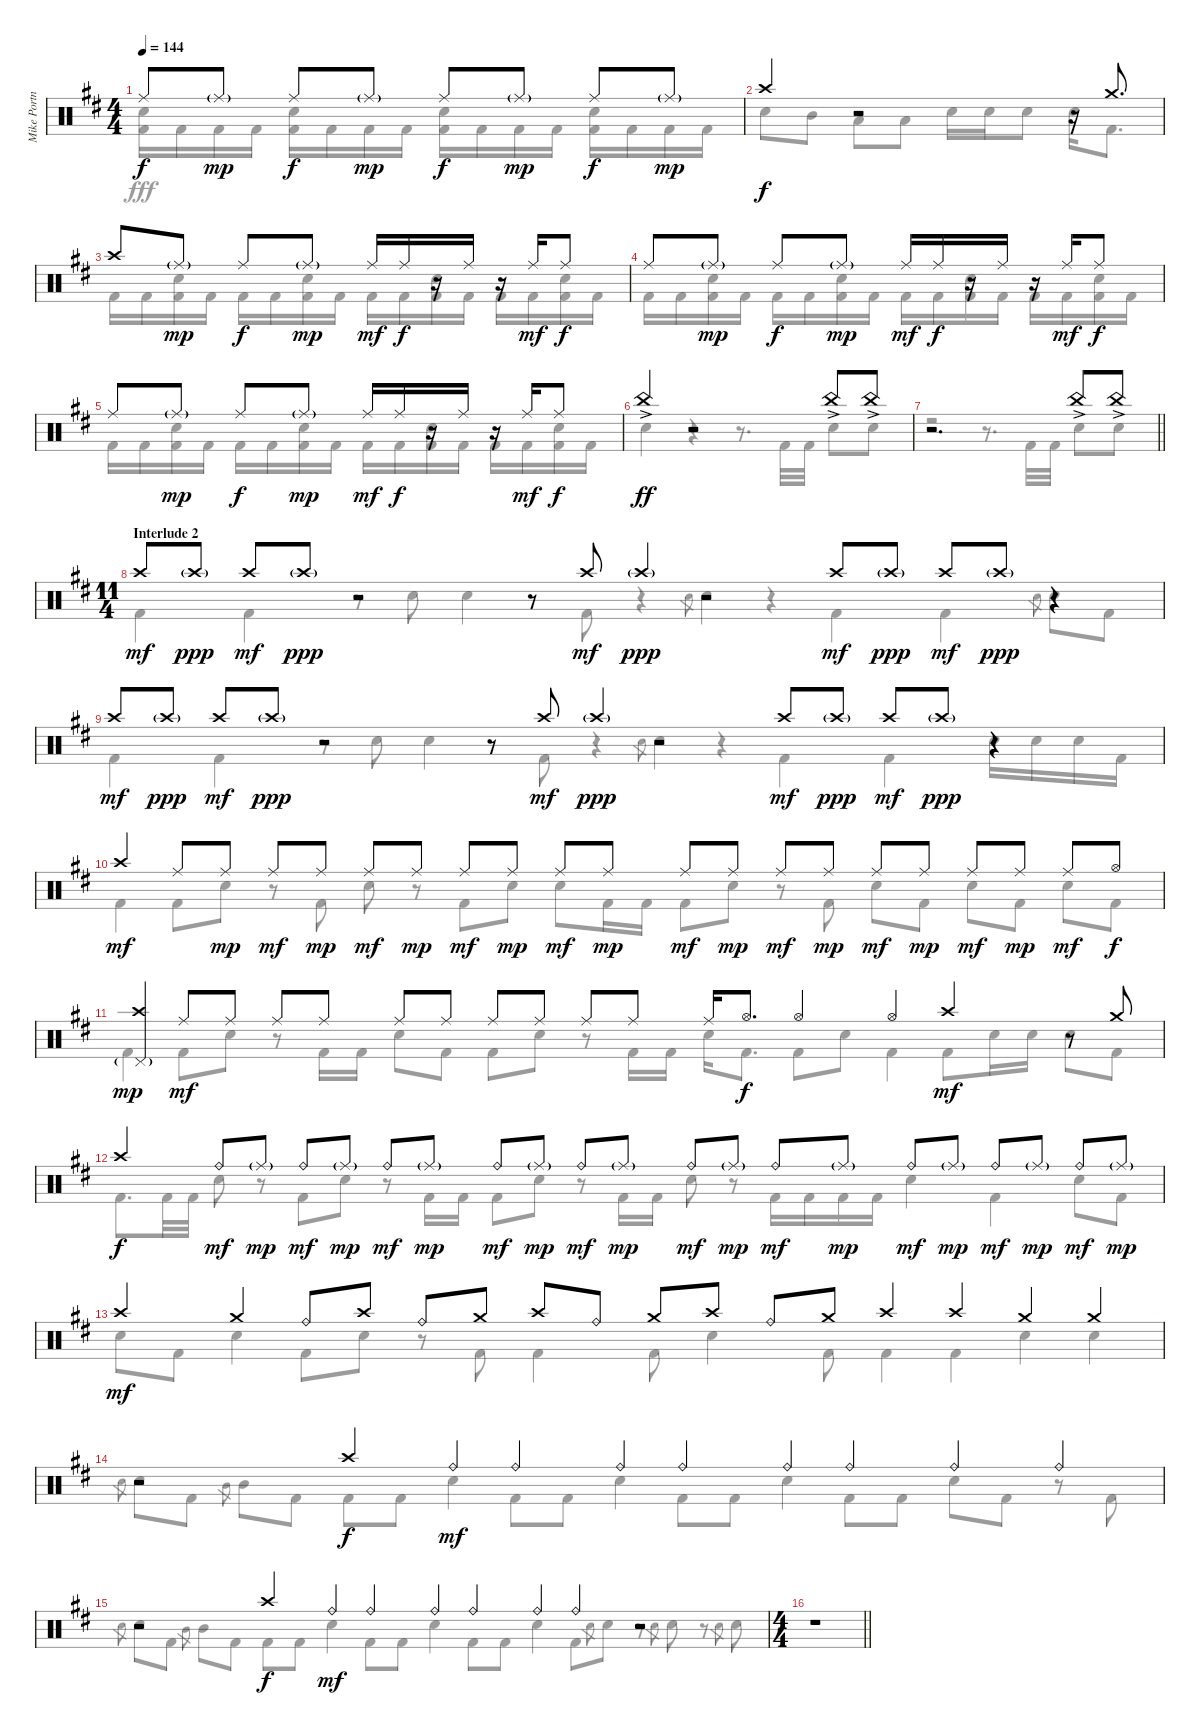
\track ("Mike Portnoy Drums" "Mike Portn") {instrument percussion}
\staff {score}
\articulation defaults
\voice
\ts (4 4)
\tempo 144
\clef neutral
\ks bminor "Ride (middle)".8{dy f} "Ride (middle)"{g}.8{dy mp} "Ride (middle)".8{dy f} "Ride (middle)"{g}.8{dy mp} "Ride (middle)".8{dy f} "Ride (middle)"{g}.8{dy mp} "Ride (middle)".8{dy f} "Ride (middle)"{g}.8{dy mp}
|
"Crash high (hit)".4{dy f} r.2 r.16 "Crash medium (hit)".8{d} |
"Crash high (hit)".8 "Ride (middle)"{g}.8{dy mp} "Ride (middle)".8{dy f} "Ride (middle)"{g}.8{dy mp} "Ride (middle)".16{dy mf} "Ride (middle)".16{dy f} r.16 "Ride (middle)".16 r.16 "Ride (middle)".16{dy mf} "Ride (middle)".8{dy f} |
"Ride (middle)".8 "Ride (middle)"{g}.8{dy mp} "Ride (middle)".8{dy f} "Ride (middle)"{g}.8{dy mp} "Ride (middle)".16{dy mf} "Ride (middle)".16{dy f} r.16 "Ride (middle)".16 r.16 "Ride (middle)".16{dy mf} "Ride (middle)".8{dy f} |
"Ride (middle)".8 "Ride (middle)"{g}.8{dy mp} "Ride (middle)".8{dy f} "Ride (middle)"{g}.8{dy mp} "Ride (middle)".16{dy mf} "Ride (middle)".16{dy f} r.16 "Ride (middle)".16 r.16 "Ride (middle)".16{dy mf} "Ride (middle)".8{dy f} |
"China (hit)"{ac}.4{dy ff} r.2 "China (hit)"{ac}.8 "China (hit)"{ac}.8 |
\barLineRight lightlight
r.2{d} "China (hit)"{ac}.8 "China (hit)"{ac}.8 |
\ts (11 4)
\section ("" "Interlude 2")
"Crash high (hit)".8{dy mf} "Crash high (hit)"{g}.8{dy ppp} "Crash high (hit)".8{dy mf} "Crash high (hit)"{g}.8{dy ppp} r.2 r.8 "Crash high (hit)".8{dy mf} "Crash high (hit)"{g}.4{dy ppp} r.2 "Crash high (hit)".8{dy mf} "Crash high (hit)"{g}.8{dy ppp} "Crash high (hit)".8{dy mf} "Crash high (hit)"{g}.8{dy ppp} r.4 |
"Crash high (hit)".8{dy mf} "Crash high (hit)"{g}.8{dy ppp} "Crash high (hit)".8{dy mf} "Crash high (hit)"{g}.8{dy ppp} r.2 r.8 "Crash high (hit)".8{dy mf} "Crash high (hit)"{g}.4{dy ppp} r.2 "Crash high (hit)".8{dy mf} "Crash high (hit)"{g}.8{dy ppp} "Crash high (hit)".8{dy mf} "Crash high (hit)"{g}.8{dy ppp} r.4 |
"Crash high (hit)".4{dy mf} "Ride (middle)".8 "Ride (middle)".8{dy mp} "Ride (middle)".8{dy mf} "Ride (middle)".8{dy mp} "Ride (middle)".8{dy mf} "Ride (middle)".8{dy mp} "Ride (middle)".8{dy mf} "Ride (middle)".8{dy mp} "Ride (middle)".8{dy mf} "Ride (middle)".8{dy mp} "Ride (middle)".8{dy mf} "Ride (middle)".8{dy mp} "Ride (middle)".8{dy mf} "Ride (middle)".8{dy mp} "Ride (middle)".8{dy mf} "Ride (middle)".8{dy mp} "Ride (middle)".8{dy mf} "Ride (middle)".8{dy mp} "Ride (middle)".8{dy mf} "Hi-Hat (open)".8{dy f} |
("Crash high (hit)" "Pedal Hi-Hat (hit)"{g}).4{dy mp} "Ride (middle)".8{dy mf} "Ride (middle)".8 "Ride (middle)".8 "Ride (middle)".8 "Ride (middle)".8 "Ride (middle)".8 "Ride (middle)".8 "Ride (middle)".8 "Ride (middle)".8 "Ride (middle)".8 "Ride (middle)".16 "Hi-Hat (open)".8{d dy f} "Hi-Hat (open)".4 "Hi-Hat (open)".4 "Crash high (hit)".4{dy mf} r.8 "Crash medium (hit)".8 |
"Crash high (hit)".4{dy f} "Ride (bell)".8{dy mf} "Ride (middle)"{g}.8{dy mp} "Ride (bell)".8{dy mf} "Ride (middle)"{g}.8{dy mp} "Ride (bell)".8{dy mf} "Ride (middle)"{g}.8{dy mp} "Ride (bell)".8{dy mf} "Ride (middle)"{g}.8{dy mp} "Ride (bell)".8{dy mf} "Ride (middle)"{g}.8{dy mp} "Ride (bell)".8{dy mf} "Ride (middle)"{g}.8{dy mp} "Ride (bell)".8{dy mf} "Ride (middle)"{g}.8{dy mp} "Ride (bell)".8{dy mf} "Ride (middle)"{g}.8{dy mp} "Ride (bell)".8{dy mf} "Ride (middle)"{g}.8{dy mp} "Ride (bell)".8{dy mf} "Ride (middle)"{g}.8{dy mp} |
"Crash high (hit)".4{dy mf} "Crash medium (hit)".4 "Ride (bell)".8 "Crash high (hit)".8 "Ride (bell)".8 "Crash medium (hit)".8 "Crash high (hit)".8 "Ride (bell)".8 "Crash medium (hit)".8 "Crash high (hit)".8 "Ride (bell)".8 "Crash medium (hit)".8 "Crash high (hit)".4 "Crash high (hit)".4 "Crash medium (hit)".4 "Crash medium (hit)".4 |
r.2 "Crash high (hit)".4{dy f} "Ride (bell)".4{dy mf} "Ride (bell)".4 "Ride (bell)".4 "Ride (bell)".4 "Ride (bell)".4 "Ride (bell)".4 "Ride (bell)".4 "Ride (bell)".4 |
r.2 "Crash high (hit)".4{dy f} "Ride (bell)".4{dy mf} "Ride (bell)".4 "Ride (bell)".4 "Ride (bell)".4 "Ride (bell)".4 "Ride (bell)".4 r.2 |
\ts (4 4)
\barLineRight lightlight
r.1
\voice
\clef neutral
\ottava regular
\simile none
\ks bminor
("Snare (hit) 2" "Kick (hit) 2").16{dy fff} "Kick (hit) 2".16 "Kick (hit) 2".16 "Kick (hit) 2".16 ("Snare (hit) 2" "Kick (hit) 2").16 "Kick (hit) 2".16 "Kick (hit) 2".16 "Kick (hit) 2".16 ("Snare (hit) 2" "Kick (hit) 2").16 "Kick (hit) 2".16 "Kick (hit) 2".16 "Kick (hit) 2".16 ("Snare (hit) 2" "Kick (hit) 2").16 "Kick (hit) 2".16 "Kick (hit) 2".16 "Kick (hit) 2".16 |
"Snare (hit) 2".8 "Mid Tom (hit)".8 "Low Tom (hit)".8 "Low Tom (hit)".8 "Snare (hit) 2".16 "Snare (hit) 2".16 "Snare (hit) 2".8 "Snare (hit) 2".16 "Kick (hit) 2".8{d} |
"Kick (hit) 2".16 "Kick (hit) 2".16 ("Snare (hit) 2" "Kick (hit) 2").16 "Kick (hit) 2".16 "Kick (hit) 2".16 "Kick (hit) 2".16 ("Snare (hit) 2" "Kick (hit) 2").16 "Kick (hit) 2".16 "Kick (hit) 2".16 "Kick (hit) 2".16 ("Snare (hit) 2" "Kick (hit) 2").16 "Kick (hit) 2".16 "Kick (hit) 2".16 "Kick (hit) 2".16 ("Snare (hit) 2" "Kick (hit) 2").16 "Kick (hit) 2".16 |
"Kick (hit) 2".16 "Kick (hit) 2".16 ("Snare (hit) 2" "Kick (hit) 2").16 "Kick (hit) 2".16 "Kick (hit) 2".16 "Kick (hit) 2".16 ("Snare (hit) 2" "Kick (hit) 2").16 "Kick (hit) 2".16 "Kick (hit) 2".16 "Kick (hit) 2".16 ("Snare (hit) 2" "Kick (hit) 2").16 "Kick (hit) 2".16 "Kick (hit) 2".16 "Kick (hit) 2".16 ("Snare (hit) 2" "Kick (hit) 2").16 "Kick (hit) 2".16 |
"Kick (hit) 2".16 "Kick (hit) 2".16 ("Snare (hit) 2" "Kick (hit) 2").16 "Kick (hit) 2".16 "Kick (hit) 2".16 "Kick (hit) 2".16 ("Snare (hit) 2" "Kick (hit) 2").16 "Kick (hit) 2".16 "Kick (hit) 2".16 "Kick (hit) 2".16 ("Snare (hit) 2" "Kick (hit) 2").16 "Kick (hit) 2".16 "Kick (hit) 2".16 "Kick (hit) 2".16 ("Snare (hit) 2" "Kick (hit) 2").16 "Kick (hit) 2".16 |
"Snare (hit) 2".4 r.4 r.8{d} "Kick (hit) 2".32 "Kick (hit) 2".32 "Snare (hit) 2".8 "Snare (hit) 2".8 |
\barLineRight lightlight
r.2 r.8{d} "Kick (hit) 2".32 "Kick (hit) 2".32 "Snare (hit) 2".8 "Snare (hit) 2".8 |
"Kick (hit) 2".4 "Kick (hit) 2".4 r.8 "Snare (hit) 2".8 "Snare (hit) 2".4 r.8 "Kick (hit) 2".8 r.4 "Snare (hit) 2".8{gr} "Snare (hit) 2".4 r.4 "Kick (hit) 2".4 "Kick (hit) 2".4 "Snare (hit) 2".8{gr} "Snare (hit) 2".8 "Kick (hit) 2".8 |
"Kick (hit) 2".4 "Kick (hit) 2".4 r.8 "Snare (hit) 2".8 "Snare (hit) 2".4 r.8 "Kick (hit) 2".8 r.4 "Snare (hit) 2".8{gr} "Snare (hit) 2".4 r.4 "Kick (hit) 2".4 "Kick (hit) 2".4 "Snare (hit) 2".16 "Snare (hit) 2".16 "Snare (hit) 2".16 "Kick (hit) 2".16 |
"Kick (hit) 2".4 "Kick (hit) 2".8 "Snare (hit) 2".8 r.8 "Kick (hit) 2".8 "Snare (hit) 2".8 r.8 "Kick (hit) 2".8 "Snare (hit) 2".8 "Snare (hit) 2".8 "Kick (hit) 2".16 "Kick (hit) 2".16 "Kick (hit) 2".8 "Snare (hit) 2".8 r.8 "Kick (hit) 2".8 "Snare (hit) 2".8 "Kick (hit) 2".8 "Snare (hit) 2".8 "Kick (hit) 2".8 "Snare (hit) 2".8 "Kick (hit) 2".8 |
"Kick (hit) 2".4 "Kick (hit) 2".8 "Snare (hit) 2".8 r.8 "Kick (hit) 2".16 "Kick (hit) 2".16 "Snare (hit) 2".8 "Kick (hit) 2".8 "Kick (hit) 2".8 "Snare (hit) 2".8 r.8 "Kick (hit) 2".16 "Kick (hit) 2".16 "Snare (hit) 2".16 "Kick (hit) 2".8{d} "Kick (hit) 2".8 "Snare (hit) 2".8 "Kick (hit) 2".4 "Kick (hit) 2".8 "Snare (hit) 2".16 "Snare (hit) 2".16 "Snare (hit) 2".8 "Kick (hit) 2".8 |
"Kick (hit) 2".8{d} "Kick (hit) 2".32 "Kick (hit) 2".32 "Snare (hit) 2".8 r.8 "Kick (hit) 2".8 "Snare (hit) 2".8 r.8 "Kick (hit) 2".16 "Kick (hit) 2".16 "Kick (hit) 2".8 "Snare (hit) 2".8 r.8 "Kick (hit) 2".16 "Kick (hit) 2".16 "Snare (hit) 2".8 r.8 "Kick (hit) 2".16 "Kick (hit) 2".16 "Kick (hit) 2".16 "Kick (hit) 2".16 "Snare (hit) 2".4 "Kick (hit) 2".4 "Snare (hit) 2".8 "Kick (hit) 2".8 |
"Snare (hit) 2".8 "Kick (hit) 2".8 "Snare (hit) 2".4 "Kick (hit) 2".8 "Snare (hit) 2".8 r.8 "Kick (hit) 2".8 "Kick (hit) 2".4 "Kick (hit) 2".8 "Snare (hit) 2".4 "Kick (hit) 2".8 "Kick (hit) 2".4 "Kick (hit) 2".4 "Snare (hit) 2".4 "Snare (hit) 2".4 |
"Snare (hit) 2".8{gr} "Snare (hit) 2".8 "Kick (hit) 2".8 "Mid Tom (hit)".8{gr} "Mid Tom (hit)".8 "Kick (hit) 2".8 "Kick (hit) 2".8 "Kick (hit) 2".8 "Snare (hit) 2".4 "Kick (hit) 2".8 "Kick (hit) 2".8 "Snare (hit) 2".4 "Kick (hit) 2".8 "Kick (hit) 2".8 "Snare (hit) 2".4 "Kick (hit) 2".8 "Kick (hit) 2".8 "Snare (hit) 2".8 "Kick (hit) 2".8 r.8 "Kick (hit) 2".8 |
"Snare (hit) 2".8{gr} "Snare (hit) 2".8 "Kick (hit) 2".8 "Mid Tom (hit)".8{gr} "Mid Tom (hit)".8 "Kick (hit) 2".8 "Kick (hit) 2".8 "Kick (hit) 2".8 "Snare (hit) 2".4 "Kick (hit) 2".8 "Kick (hit) 2".8 "Snare (hit) 2".4 "Kick (hit) 2".8 "Kick (hit) 2".8 "Snare (hit) 2".4 "Kick (hit) 2".8 "Snare (hit) 2".8{gr} "Snare (hit) 2".8 r.8 "Snare (hit) 2".8{gr} "Snare (hit) 2".8 r.8 "Snare (hit) 2".8{gr} "Snare (hit) 2".8 |
\barLineRight lightlight
r.1
